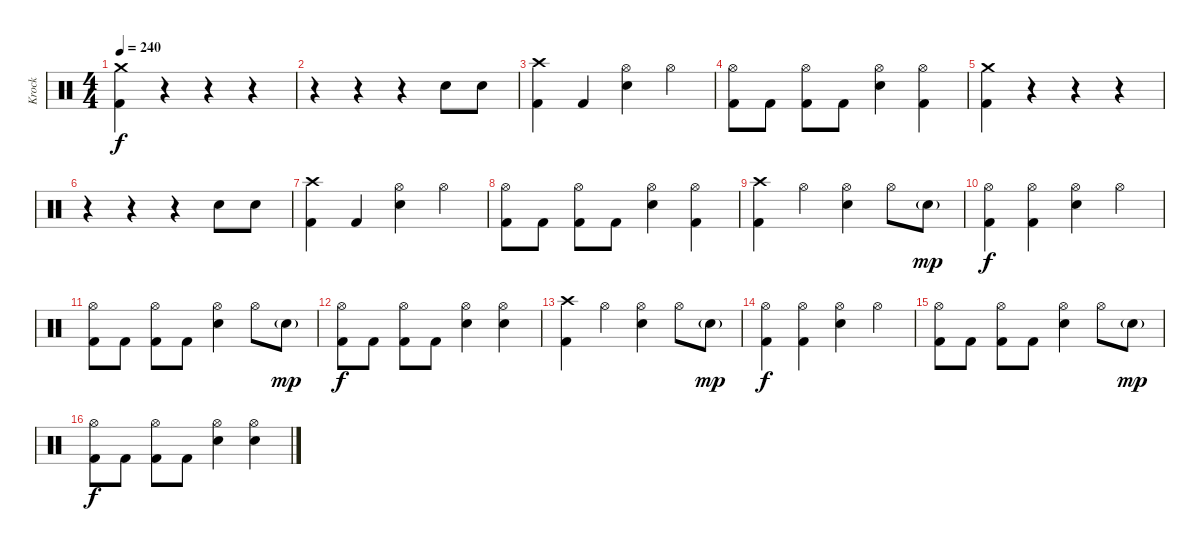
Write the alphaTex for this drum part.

\track ("Krock" "Krock") {instrument percussion}
\staff {score}
\articulation defaults
\ts (4 4)
\tempo 240
\clef neutral
\ks c
("Crash medium (hit)" "Kick (hit) 2").4{dy f} r.4 r.4 r.4 |
r.4 r.4 r.4 "Electric Snare (hit)".8 "Electric Snare (hit)".8 |
("Crash high (hit)" "Kick (hit) 2").4 "Kick (hit) 2".4 ("Hi-Hat (open)" "Electric Snare (hit)").4 "Hi-Hat (open)".4 |
("Hi-Hat (open)" "Kick (hit) 2").8 "Kick (hit) 2".8 ("Hi-Hat (open)" "Kick (hit) 2").8 "Kick (hit) 2".8 ("Hi-Hat (open)" "Electric Snare (hit)").4 ("Hi-Hat (open)" "Kick (hit) 2").4 |
("Crash medium (hit)" "Kick (hit) 2").4 r.4 r.4 r.4 |
r.4 r.4 r.4 "Electric Snare (hit)".8 "Electric Snare (hit)".8 |
("Crash high (hit)" "Kick (hit) 2").4 "Kick (hit) 2".4 ("Hi-Hat (open)" "Electric Snare (hit)").4 "Hi-Hat (open)".4 |
("Hi-Hat (open)" "Kick (hit) 2").8 "Kick (hit) 2".8 ("Hi-Hat (open)" "Kick (hit) 2").8 "Kick (hit) 2".8 ("Hi-Hat (open)" "Electric Snare (hit)").4 ("Hi-Hat (open)" "Kick (hit) 2").4 |
("Kick (hit) 2" "Crash high (hit)").4 "Hi-Hat (open)".4 ("Electric Snare (hit)" "Hi-Hat (open)").4 "Hi-Hat (open)".8 "Electric Snare (hit)"{g}.8{dy mp} |
("Kick (hit) 2" "Hi-Hat (open)").4{dy f} ("Kick (hit) 2" "Hi-Hat (open)").4 ("Electric Snare (hit)" "Hi-Hat (open)").4 "Hi-Hat (open)".4 |
("Kick (hit) 2" "Hi-Hat (open)").8 "Kick (hit) 2".8 ("Kick (hit) 2" "Hi-Hat (open)").8 "Kick (hit) 2".8 ("Electric Snare (hit)" "Hi-Hat (open)").4 "Hi-Hat (open)".8 "Electric Snare (hit)"{g}.8{dy mp} |
("Kick (hit) 2" "Hi-Hat (open)").8{dy f} "Kick (hit) 2".8 ("Kick (hit) 2" "Hi-Hat (open)").8 "Kick (hit) 2".8 ("Electric Snare (hit)" "Hi-Hat (open)").4 ("Electric Snare (hit)" "Hi-Hat (open)").4 |
("Kick (hit) 2" "Crash high (hit)").4 "Hi-Hat (open)".4 ("Electric Snare (hit)" "Hi-Hat (open)").4 "Hi-Hat (open)".8 "Electric Snare (hit)"{g}.8{dy mp} |
("Kick (hit) 2" "Hi-Hat (open)").4{dy f} ("Kick (hit) 2" "Hi-Hat (open)").4 ("Electric Snare (hit)" "Hi-Hat (open)").4 "Hi-Hat (open)".4 |
("Kick (hit) 2" "Hi-Hat (open)").8 "Kick (hit) 2".8 ("Kick (hit) 2" "Hi-Hat (open)").8 "Kick (hit) 2".8 ("Electric Snare (hit)" "Hi-Hat (open)").4 "Hi-Hat (open)".8 "Electric Snare (hit)"{g}.8{dy mp} |
("Kick (hit) 2" "Hi-Hat (open)").8{dy f} "Kick (hit) 2".8 ("Kick (hit) 2" "Hi-Hat (open)").8 "Kick (hit) 2".8 ("Electric Snare (hit)" "Hi-Hat (open)").4 ("Electric Snare (hit)" "Hi-Hat (open)").4
